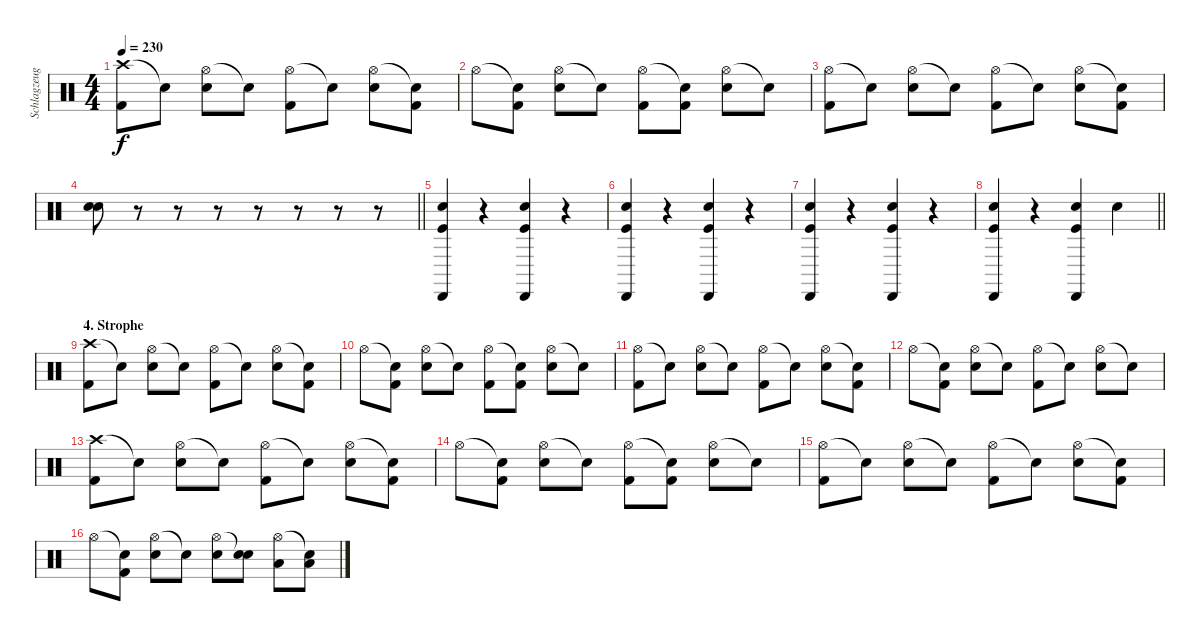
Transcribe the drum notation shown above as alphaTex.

\track ("Schlagzeug" "Schlagzeug") {instrument percussion}
\staff {score}
\articulation defaults
\ts (4 4)
\tempo 230
\clef neutral
\ks c
("Crash high (hit)" "Kick (hit) 2").8{dy f} "Snare (hit)"{t}.8 ("Hi-Hat (open)" "Snare (hit) 2").8 "Snare (hit)"{t}.8 ("Hi-Hat (open)" "Kick (hit) 2").8 "Snare (hit)"{t}.8 ("Hi-Hat (open)" "Snare (hit) 2").8 ("Snare (hit)"{t} "Kick (hit) 2").8 |
"Hi-Hat (open)".8 ("Snare (hit)"{t} "Kick (hit) 2").8 ("Hi-Hat (open)" "Snare (hit) 2").8 "Snare (hit)"{t}.8 ("Hi-Hat (open)" "Kick (hit) 2").8 ("Snare (hit)"{t} "Kick (hit) 2").8 ("Hi-Hat (open)" "Snare (hit) 2").8 "Snare (hit)"{t}.8 |
("Hi-Hat (open)" "Kick (hit) 2").8 "Snare (hit)"{t}.8 ("Hi-Hat (open)" "Snare (hit) 2").8 "Snare (hit)"{t}.8 ("Hi-Hat (open)" "Kick (hit) 2").8 "Snare (hit)"{t}.8 ("Hi-Hat (open)" "Snare (hit) 2").8 ("Snare (hit)"{t} "Kick (hit) 2").8 |
\barLineRight lightlight
("Snare (hit) 2" "Electric Snare (hit)").8 r.8 r.8 r.8 r.8 r.8 r.8 r.8 |
("Hand Clap (hit)" "Cabasa (hit)" "Kick (hit)").4 r.4 ("Hand Clap (hit)" "Cabasa (hit)" "Kick (hit)").4 r.4 |
("Hand Clap (hit)" "Cabasa (hit)" "Kick (hit)").4 r.4 ("Hand Clap (hit)" "Cabasa (hit)" "Kick (hit)").4 r.4 |
("Hand Clap (hit)" "Cabasa (hit)" "Kick (hit)").4 r.4 ("Hand Clap (hit)" "Cabasa (hit)" "Kick (hit)").4 r.4 |
\barLineRight lightlight
("Hand Clap (hit)" "Cabasa (hit)" "Kick (hit)").4 r.4 ("Hand Clap (hit)" "Cabasa (hit)" "Kick (hit)").4 "Snare (hit) 2".4 |
\section ("" "4. Strophe")
("Crash high (hit)" "Kick (hit) 2").8 "Snare (hit)"{t}.8 ("Hi-Hat (open)" "Snare (hit) 2").8 "Snare (hit)"{t}.8 ("Hi-Hat (open)" "Kick (hit) 2").8 "Snare (hit)"{t}.8 ("Hi-Hat (open)" "Snare (hit) 2").8 ("Snare (hit)"{t} "Kick (hit) 2").8 |
"Hi-Hat (open)".8 ("Snare (hit)"{t} "Kick (hit) 2").8 ("Hi-Hat (open)" "Snare (hit) 2").8 "Snare (hit)"{t}.8 ("Hi-Hat (open)" "Kick (hit) 2").8 ("Snare (hit)"{t} "Kick (hit) 2").8 ("Hi-Hat (open)" "Snare (hit) 2").8 "Snare (hit)"{t}.8 |
("Hi-Hat (open)" "Kick (hit) 2").8 "Snare (hit)"{t}.8 ("Hi-Hat (open)" "Snare (hit) 2").8 "Snare (hit)"{t}.8 ("Hi-Hat (open)" "Kick (hit) 2").8 "Snare (hit)"{t}.8 ("Hi-Hat (open)" "Snare (hit) 2").8 ("Snare (hit)"{t} "Kick (hit) 2").8 |
"Hi-Hat (open)".8 ("Snare (hit)"{t} "Kick (hit) 2").8 ("Hi-Hat (open)" "Snare (hit) 2").8 "Snare (hit)"{t}.8 ("Hi-Hat (open)" "Kick (hit) 2").8 "Snare (hit)"{t}.8 ("Hi-Hat (open)" "Snare (hit) 2").8 "Snare (hit)"{t}.8 |
("Crash high (hit)" "Kick (hit) 2").8 "Snare (hit)"{t}.8 ("Hi-Hat (open)" "Snare (hit) 2").8 "Snare (hit)"{t}.8 ("Hi-Hat (open)" "Kick (hit) 2").8 "Snare (hit)"{t}.8 ("Hi-Hat (open)" "Snare (hit) 2").8 ("Snare (hit)"{t} "Kick (hit) 2").8 |
"Hi-Hat (open)".8 ("Snare (hit)"{t} "Kick (hit) 2").8 ("Hi-Hat (open)" "Snare (hit) 2").8 "Snare (hit)"{t}.8 ("Hi-Hat (open)" "Kick (hit) 2").8 ("Snare (hit)"{t} "Kick (hit) 2").8 ("Hi-Hat (open)" "Snare (hit) 2").8 "Snare (hit)"{t}.8 |
("Hi-Hat (open)" "Kick (hit) 2").8 "Snare (hit)"{t}.8 ("Hi-Hat (open)" "Snare (hit) 2").8 "Snare (hit)"{t}.8 ("Hi-Hat (open)" "Kick (hit) 2").8 "Snare (hit)"{t}.8 ("Hi-Hat (open)" "Snare (hit) 2").8 ("Snare (hit)"{t} "Kick (hit) 2").8 |
"Hi-Hat (open)".8 ("Snare (hit)"{t} "Kick (hit) 2").8 ("Hi-Hat (open)" "Snare (hit) 2").8 "Snare (hit)"{t}.8 ("Hi-Hat (open)" "Snare (hit) 2").8 ("Snare (hit)"{t} "Snare (hit) 2").8 ("Hi-Hat (open)" "Low Tom (hit)").8 ("Snare (hit)"{t} "Low Tom (hit)").8
